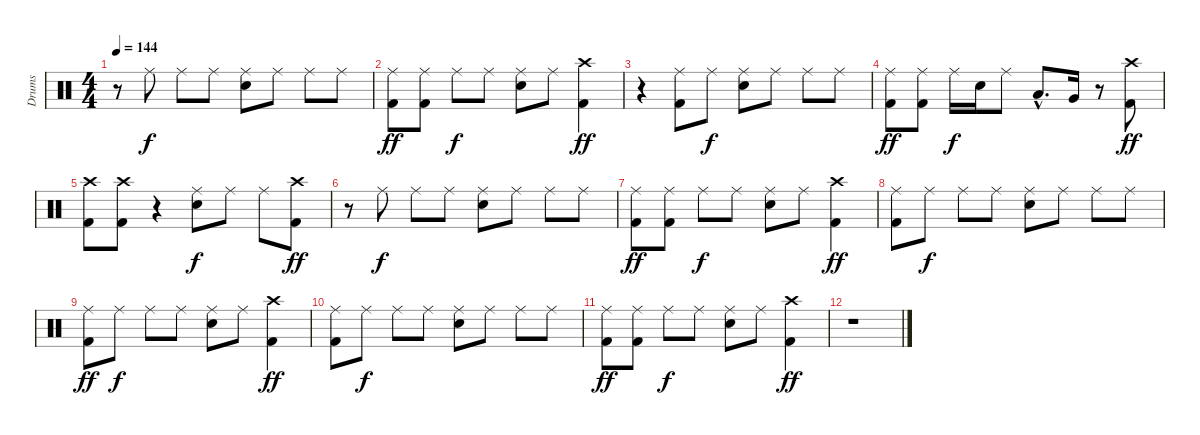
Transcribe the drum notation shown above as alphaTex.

\track ("Drums" "Drums") {instrument percussion}
\staff {score}
\articulation defaults
\ts (4 4)
\tempo 144
\clef neutral
\ks c
r.8{dy ff} "Ride (middle)".8{dy f} "Ride (middle)".8 "Ride (middle)".8 ("Ride (middle)" "Snare (hit) 2").8 "Ride (middle)".8 "Ride (middle)".8 "Ride (middle)".8 |
("Ride (middle)" "Kick (hit) 2").8{dy ff volume 15} ("Ride (middle)" "Kick (hit) 2").8 "Ride (middle)".8{dy f} "Ride (middle)".8 ("Ride (middle)" "Snare (hit) 2").8 "Ride (middle)".8 ("Crash high (hit)" "Kick (hit) 2").4{dy ff} |
r.4 ("Ride (middle)" "Kick (hit) 2").8{volume 13} "Ride (middle)".8{dy f} ("Ride (middle)" "Snare (hit) 2").8 "Ride (middle)".8 "Ride (middle)".8 "Ride (middle)".8 |
("Ride (middle)" "Kick (hit) 2").8{dy ff volume 12} ("Ride (middle)" "Kick (hit) 2").8 "Ride (middle)".16{dy f} "Snare (hit) 2".16 "Ride (middle)".8 "Low Tom (hit)"{hac}.8{d} "Very Low Tom (hit)".16 r.8 ("Crash high (hit)" "Kick (hit) 2").8{dy ff} |
("Crash high (hit)" "Kick (hit) 2").8{volume 11} ("Crash high (hit)" "Kick (hit) 2").8 r.4 ("Ride (middle)" "Snare (hit) 2").8{dy f} "Ride (middle)".8 "Ride (middle)".8 ("Crash high (hit)" "Kick (hit) 2").8{dy ff} |
r.8{volume 10} "Ride (middle)".8{dy f} "Ride (middle)".8 "Ride (middle)".8 ("Ride (middle)" "Snare (hit) 2").8 "Ride (middle)".8 "Ride (middle)".8 "Ride (middle)".8 |
("Ride (middle)" "Kick (hit) 2").8{dy ff volume 9} ("Ride (middle)" "Kick (hit) 2").8 "Ride (middle)".8{dy f} "Ride (middle)".8 ("Ride (middle)" "Snare (hit) 2").8 "Ride (middle)".8 ("Crash high (hit)" "Kick (hit) 2").4{dy ff} |
("Ride (middle)" "Kick (hit) 2").8{volume 7} "Ride (middle)".8{dy f} "Ride (middle)".8 "Ride (middle)".8 ("Ride (middle)" "Snare (hit) 2").8 "Ride (middle)".8 "Ride (middle)".8 "Ride (middle)".8 |
("Ride (middle)" "Kick (hit) 2").8{dy ff volume 6} "Ride (middle)".8{dy f} "Ride (middle)".8 "Ride (middle)".8 ("Ride (middle)" "Snare (hit) 2").8 "Ride (middle)".8 ("Crash high (hit)" "Kick (hit) 2").4{dy ff} |
("Ride (middle)" "Kick (hit) 2").8{volume 5} "Ride (middle)".8{dy f} "Ride (middle)".8 "Ride (middle)".8 ("Ride (middle)" "Snare (hit) 2").8 "Ride (middle)".8 "Ride (middle)".8 "Ride (middle)".8 |
("Ride (middle)" "Kick (hit) 2").8{dy ff volume 4} ("Ride (middle)" "Kick (hit) 2").8 "Ride (middle)".8{dy f} "Ride (middle)".8 ("Ride (middle)" "Snare (hit) 2").8 "Ride (middle)".8 ("Crash high (hit)" "Kick (hit) 2").4{dy ff} |
r.1
